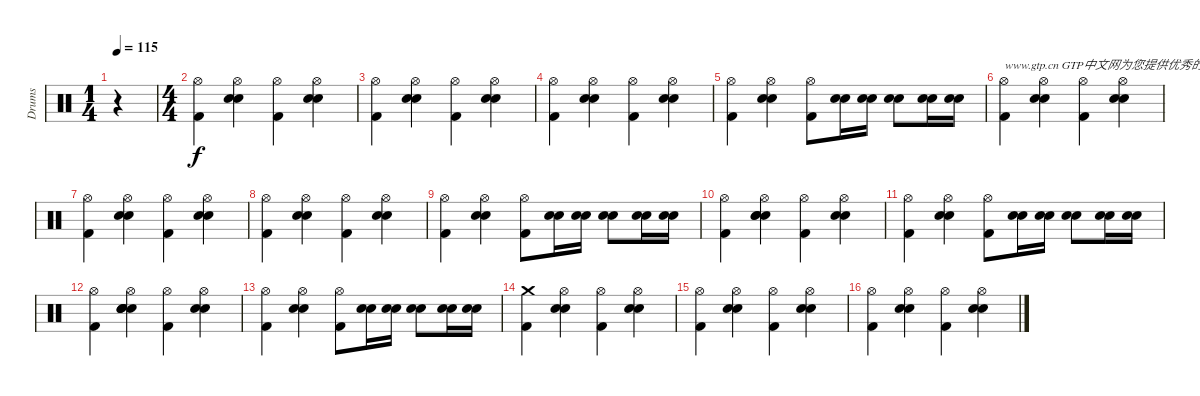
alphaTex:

\track ("Drums" "Drums") {instrument percussion}
\staff {score}
\articulation defaults
\ts (1 4)
\tempo 115
\clef neutral
\ks c
r.4{dy f} |
\ts (4 4)
("Hi-Hat (open)" "Kick (hit) 2").4 ("Hi-Hat (open)" "Electric Snare (hit)" "Snare (hit) 2").4 ("Hi-Hat (open)" "Kick (hit) 2").4 ("Hi-Hat (open)" "Electric Snare (hit)" "Snare (hit) 2").4 |
("Hi-Hat (open)" "Kick (hit) 2").4 ("Hi-Hat (open)" "Electric Snare (hit)" "Snare (hit) 2").4 ("Hi-Hat (open)" "Kick (hit) 2").4 ("Hi-Hat (open)" "Electric Snare (hit)" "Snare (hit) 2").4 |
("Hi-Hat (open)" "Kick (hit) 2").4 ("Hi-Hat (open)" "Electric Snare (hit)" "Snare (hit) 2").4 ("Hi-Hat (open)" "Kick (hit) 2").4 ("Hi-Hat (open)" "Electric Snare (hit)" "Snare (hit) 2").4 |
("Hi-Hat (open)" "Kick (hit) 2").4 ("Hi-Hat (open)" "Electric Snare (hit)" "Snare (hit) 2").4 ("Hi-Hat (open)" "Kick (hit) 2").8 ("Electric Snare (hit)" "Snare (hit) 2").16 ("Electric Snare (hit)" "Snare (hit) 2").16 ("Electric Snare (hit)" "Snare (hit) 2").8 ("Electric Snare (hit)" "Snare (hit) 2").16 ("Electric Snare (hit)" "Snare (hit) 2").16 |
("Hi-Hat (open)" "Kick (hit) 2").4{txt "www.gtp.cn GTP中文网为您提供优秀的谱子"} ("Hi-Hat (open)" "Electric Snare (hit)" "Snare (hit) 2").4 ("Hi-Hat (open)" "Kick (hit) 2").4 ("Hi-Hat (open)" "Electric Snare (hit)" "Snare (hit) 2").4 |
("Hi-Hat (open)" "Kick (hit) 2").4 ("Hi-Hat (open)" "Electric Snare (hit)" "Snare (hit) 2").4 ("Hi-Hat (open)" "Kick (hit) 2").4 ("Hi-Hat (open)" "Electric Snare (hit)" "Snare (hit) 2").4 |
("Hi-Hat (open)" "Kick (hit) 2").4 ("Hi-Hat (open)" "Electric Snare (hit)" "Snare (hit) 2").4 ("Hi-Hat (open)" "Kick (hit) 2").4 ("Hi-Hat (open)" "Electric Snare (hit)" "Snare (hit) 2").4 |
("Hi-Hat (open)" "Kick (hit) 2").4 ("Hi-Hat (open)" "Electric Snare (hit)" "Snare (hit) 2").4 ("Hi-Hat (open)" "Kick (hit) 2").8 ("Electric Snare (hit)" "Snare (hit) 2").16 ("Electric Snare (hit)" "Snare (hit) 2").16 ("Electric Snare (hit)" "Snare (hit) 2").8 ("Electric Snare (hit)" "Snare (hit) 2").16 ("Electric Snare (hit)" "Snare (hit) 2").16 |
("Hi-Hat (open)" "Kick (hit) 2").4 ("Hand Clap (hit)" "Hi-Hat (open)" "Electric Snare (hit)" "Snare (hit) 2").4 ("Hi-Hat (open)" "Kick (hit) 2").4 ("Hi-Hat (open)" "Electric Snare (hit)" "Snare (hit) 2").4 |
("Hi-Hat (open)" "Kick (hit) 2").4 ("Hi-Hat (open)" "Electric Snare (hit)" "Snare (hit) 2").4 ("Hi-Hat (open)" "Kick (hit) 2").8 ("Electric Snare (hit)" "Snare (hit) 2").16 ("Electric Snare (hit)" "Snare (hit) 2").16 ("Electric Snare (hit)" "Snare (hit) 2").8 ("Electric Snare (hit)" "Snare (hit) 2").16 ("Electric Snare (hit)" "Snare (hit) 2").16 |
("Hi-Hat (open)" "Kick (hit) 2").4 ("Snare (hit) 2" "Electric Snare (hit)" "Hi-Hat (open)" "Electric Snare (hit)" "Hand Clap (hit)").4 ("Hi-Hat (open)" "Kick (hit) 2").4 ("Hi-Hat (open)" "Electric Snare (hit)" "Snare (hit) 2").4 |
("Hi-Hat (open)" "Kick (hit) 2").4 ("Hi-Hat (open)" "Electric Snare (hit)" "Snare (hit) 2").4 ("Hi-Hat (open)" "Kick (hit) 2").8 ("Electric Snare (hit)" "Snare (hit) 2").16 ("Electric Snare (hit)" "Snare (hit) 2").16 ("Electric Snare (hit)" "Snare (hit) 2").8 ("Electric Snare (hit)" "Snare (hit) 2").16 ("Electric Snare (hit)" "Snare (hit) 2").16 |
("Crash medium (hit)" "Kick (hit) 2").4 ("Hi-Hat (open)" "Electric Snare (hit)" "Snare (hit) 2").4 ("Hi-Hat (open)" "Kick (hit) 2").4 ("Hi-Hat (open)" "Electric Snare (hit)" "Snare (hit) 2").4 |
("Hi-Hat (open)" "Kick (hit) 2").4 ("Hi-Hat (open)" "Electric Snare (hit)" "Snare (hit) 2").4 ("Hi-Hat (open)" "Kick (hit) 2").4 ("Hi-Hat (open)" "Electric Snare (hit)" "Snare (hit) 2").4 |
("Hi-Hat (open)" "Kick (hit) 2").4 ("Hi-Hat (open)" "Electric Snare (hit)" "Snare (hit) 2").4 ("Hi-Hat (open)" "Kick (hit) 2").4 ("Hi-Hat (open)" "Electric Snare (hit)" "Snare (hit) 2").4
